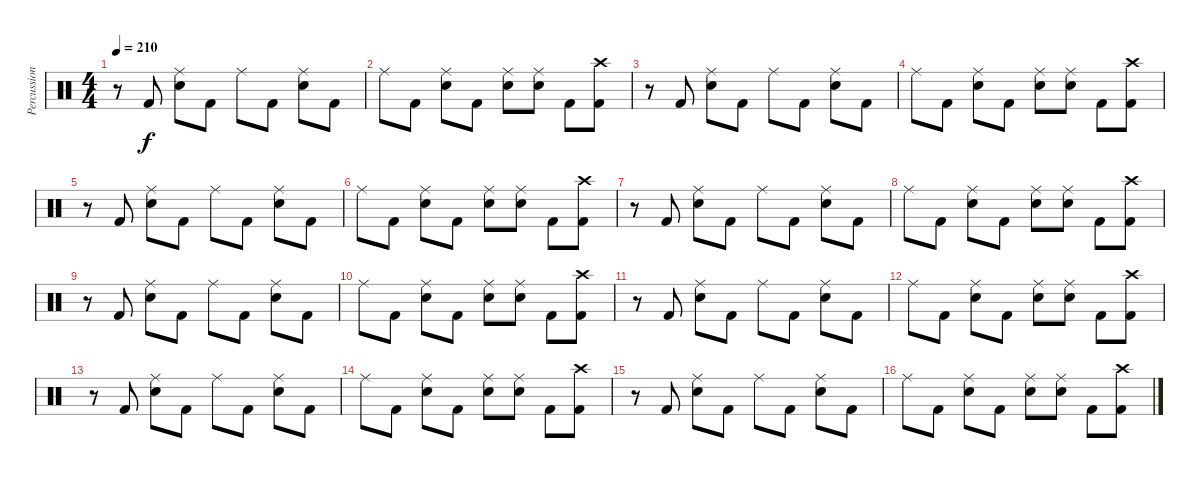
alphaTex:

\track ("Percussion" "Percussion") {instrument percussion}
\staff {score}
\articulation defaults
\ts (4 4)
\tempo 210
\clef neutral
\ks c
r.8{dy f} "Kick (hit) 2".8 ("Ride (middle)" "Electric Snare (hit)").8 "Kick (hit) 2".8 "Ride (middle)".8 "Kick (hit) 2".8 ("Ride (middle)" "Electric Snare (hit)").8 "Kick (hit) 2".8 |
"Ride (middle)".8 "Kick (hit) 2".8 ("Ride (middle)" "Electric Snare (hit)").8 "Kick (hit) 2".8 ("Ride (middle)" "Electric Snare (hit)").8 ("Ride (middle)" "Electric Snare (hit)").8 "Kick (hit) 2".8 ("Crash high (hit)" "Kick (hit) 2").8 |
r.8 "Kick (hit) 2".8 ("Ride (middle)" "Electric Snare (hit)").8 "Kick (hit) 2".8 "Ride (middle)".8 "Kick (hit) 2".8 ("Ride (middle)" "Electric Snare (hit)").8 "Kick (hit) 2".8 |
"Ride (middle)".8 "Kick (hit) 2".8 ("Ride (middle)" "Electric Snare (hit)").8 "Kick (hit) 2".8 ("Ride (middle)" "Electric Snare (hit)").8 ("Ride (middle)" "Electric Snare (hit)").8 "Kick (hit) 2".8 ("Crash high (hit)" "Kick (hit) 2").8 |
r.8 "Kick (hit) 2".8 ("Ride (middle)" "Electric Snare (hit)").8 "Kick (hit) 2".8 "Ride (middle)".8 "Kick (hit) 2".8 ("Ride (middle)" "Electric Snare (hit)").8 "Kick (hit) 2".8 |
"Ride (middle)".8 "Kick (hit) 2".8 ("Ride (middle)" "Electric Snare (hit)").8 "Kick (hit) 2".8 ("Ride (middle)" "Electric Snare (hit)").8 ("Ride (middle)" "Electric Snare (hit)").8 "Kick (hit) 2".8 ("Crash high (hit)" "Kick (hit) 2").8 |
r.8 "Kick (hit) 2".8 ("Ride (middle)" "Electric Snare (hit)").8 "Kick (hit) 2".8 "Ride (middle)".8 "Kick (hit) 2".8 ("Ride (middle)" "Electric Snare (hit)").8 "Kick (hit) 2".8 |
"Ride (middle)".8 "Kick (hit) 2".8 ("Ride (middle)" "Electric Snare (hit)").8 "Kick (hit) 2".8 ("Ride (middle)" "Electric Snare (hit)").8 ("Ride (middle)" "Electric Snare (hit)").8 "Kick (hit) 2".8 ("Crash high (hit)" "Kick (hit) 2").8 |
r.8 "Kick (hit) 2".8 ("Ride (middle)" "Electric Snare (hit)").8 "Kick (hit) 2".8 "Ride (middle)".8 "Kick (hit) 2".8 ("Ride (middle)" "Electric Snare (hit)").8 "Kick (hit) 2".8 |
"Ride (middle)".8 "Kick (hit) 2".8 ("Ride (middle)" "Electric Snare (hit)").8 "Kick (hit) 2".8 ("Ride (middle)" "Electric Snare (hit)").8 ("Ride (middle)" "Electric Snare (hit)").8 "Kick (hit) 2".8 ("Crash high (hit)" "Kick (hit) 2").8 |
r.8 "Kick (hit) 2".8 ("Ride (middle)" "Electric Snare (hit)").8 "Kick (hit) 2".8 "Ride (middle)".8 "Kick (hit) 2".8 ("Ride (middle)" "Electric Snare (hit)").8 "Kick (hit) 2".8 |
"Ride (middle)".8 "Kick (hit) 2".8 ("Ride (middle)" "Electric Snare (hit)").8 "Kick (hit) 2".8 ("Ride (middle)" "Electric Snare (hit)").8 ("Ride (middle)" "Electric Snare (hit)").8 "Kick (hit) 2".8 ("Crash high (hit)" "Kick (hit) 2").8 |
r.8 "Kick (hit) 2".8 ("Ride (middle)" "Electric Snare (hit)").8 "Kick (hit) 2".8 "Ride (middle)".8 "Kick (hit) 2".8 ("Ride (middle)" "Electric Snare (hit)").8 "Kick (hit) 2".8 |
"Ride (middle)".8 "Kick (hit) 2".8 ("Ride (middle)" "Electric Snare (hit)").8 "Kick (hit) 2".8 ("Ride (middle)" "Electric Snare (hit)").8 ("Ride (middle)" "Electric Snare (hit)").8 "Kick (hit) 2".8 ("Crash high (hit)" "Kick (hit) 2").8 |
r.8 "Kick (hit) 2".8 ("Ride (middle)" "Electric Snare (hit)").8 "Kick (hit) 2".8 "Ride (middle)".8 "Kick (hit) 2".8 ("Ride (middle)" "Electric Snare (hit)").8 "Kick (hit) 2".8 |
"Ride (middle)".8 "Kick (hit) 2".8 ("Ride (middle)" "Electric Snare (hit)").8 "Kick (hit) 2".8 ("Ride (middle)" "Electric Snare (hit)").8 ("Ride (middle)" "Electric Snare (hit)").8 "Kick (hit) 2".8 ("Crash high (hit)" "Kick (hit) 2").8
